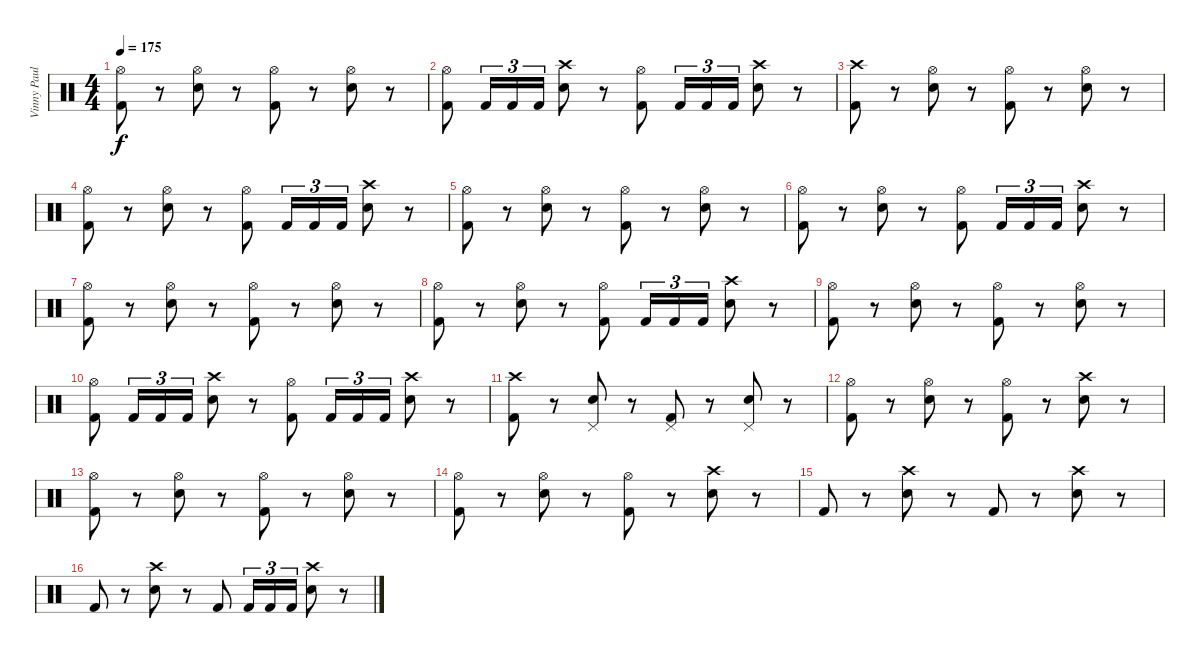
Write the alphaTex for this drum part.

\track ("Vinny Paul" "Vinny Paul") {instrument percussion}
\staff {score}
\articulation defaults
\ts (4 4)
\tempo 175
\clef neutral
\ks c
("Hi-Hat (open)" "Kick (hit) 2").8{dy f} r.8 ("Hi-Hat (open)" "Snare (hit) 2").8 r.8 ("Hi-Hat (open)" "Kick (hit) 2").8 r.8 ("Hi-Hat (open)" "Snare (hit) 2").8 r.8 |
("Hi-Hat (open)" "Kick (hit) 2").8 "Kick (hit) 2".16{tu (3 2)} "Kick (hit) 2".16{tu (3 2)} "Kick (hit) 2".16{tu (3 2)} ("Crash high (hit)" "Snare (hit) 2").8 r.8 ("Hi-Hat (open)" "Kick (hit) 2").8 "Kick (hit) 2".16{tu (3 2)} "Kick (hit) 2".16{tu (3 2)} "Kick (hit) 2".16{tu (3 2)} ("Crash high (hit)" "Snare (hit) 2").8 r.8 |
("Crash high (hit)" "Kick (hit) 2").8 r.8 ("Hi-Hat (open)" "Snare (hit) 2").8 r.8 ("Hi-Hat (open)" "Kick (hit) 2").8 r.8 ("Hi-Hat (open)" "Snare (hit) 2").8 r.8 |
("Hi-Hat (open)" "Kick (hit) 2").8 r.8 ("Hi-Hat (open)" "Snare (hit) 2").8 r.8 ("Hi-Hat (open)" "Kick (hit) 2").8 "Kick (hit) 2".16{tu (3 2)} "Kick (hit) 2".16{tu (3 2)} "Kick (hit) 2".16{tu (3 2)} ("Crash high (hit)" "Snare (hit) 2").8 r.8 |
("Hi-Hat (open)" "Kick (hit) 2").8 r.8 ("Hi-Hat (open)" "Snare (hit) 2").8 r.8 ("Hi-Hat (open)" "Kick (hit) 2").8 r.8 ("Hi-Hat (open)" "Snare (hit) 2").8 r.8 |
("Hi-Hat (open)" "Kick (hit) 2").8 r.8 ("Hi-Hat (open)" "Snare (hit) 2").8 r.8 ("Hi-Hat (open)" "Kick (hit) 2").8 "Kick (hit) 2".16{tu (3 2)} "Kick (hit) 2".16{tu (3 2)} "Kick (hit) 2".16{tu (3 2)} ("Crash high (hit)" "Snare (hit) 2").8 r.8 |
("Hi-Hat (open)" "Kick (hit) 2").8 r.8 ("Hi-Hat (open)" "Snare (hit) 2").8 r.8 ("Hi-Hat (open)" "Kick (hit) 2").8 r.8 ("Hi-Hat (open)" "Snare (hit) 2").8 r.8 |
("Hi-Hat (open)" "Kick (hit) 2").8 r.8 ("Hi-Hat (open)" "Snare (hit) 2").8 r.8 ("Hi-Hat (open)" "Kick (hit) 2").8 "Kick (hit) 2".16{tu (3 2)} "Kick (hit) 2".16{tu (3 2)} "Kick (hit) 2".16{tu (3 2)} ("Crash high (hit)" "Snare (hit) 2").8 r.8 |
("Hi-Hat (open)" "Kick (hit) 2").8 r.8 ("Hi-Hat (open)" "Snare (hit) 2").8 r.8 ("Hi-Hat (open)" "Kick (hit) 2").8 r.8 ("Hi-Hat (open)" "Snare (hit) 2").8 r.8 |
("Hi-Hat (open)" "Kick (hit) 2").8 "Kick (hit) 2".16{tu (3 2)} "Kick (hit) 2".16{tu (3 2)} "Kick (hit) 2".16{tu (3 2)} ("Crash high (hit)" "Snare (hit) 2").8 r.8 ("Hi-Hat (open)" "Kick (hit) 2").8 "Kick (hit) 2".16{tu (3 2)} "Kick (hit) 2".16{tu (3 2)} "Kick (hit) 2".16{tu (3 2)} ("Crash high (hit)" "Snare (hit) 2").8 r.8 |
("Crash high (hit)" "Kick (hit) 2").8 r.8 ("Pedal Hi-Hat (hit)" "Snare (hit) 2").8 r.8 ("Pedal Hi-Hat (hit)" "Kick (hit) 2").8 r.8 ("Pedal Hi-Hat (hit)" "Snare (hit) 2").8 r.8 |
("Hi-Hat (open)" "Kick (hit) 2").8 r.8 ("Hi-Hat (open)" "Snare (hit) 2").8 r.8 ("Hi-Hat (open)" "Kick (hit) 2").8 r.8 ("Crash high (hit)" "Snare (hit) 2").8 r.8 |
("Hi-Hat (open)" "Kick (hit) 2").8 r.8 ("Hi-Hat (open)" "Snare (hit) 2").8 r.8 ("Hi-Hat (open)" "Kick (hit) 2").8 r.8 ("Hi-Hat (open)" "Snare (hit) 2").8 r.8 |
("Hi-Hat (open)" "Kick (hit) 2").8 r.8 ("Hi-Hat (open)" "Snare (hit) 2").8 r.8 ("Hi-Hat (open)" "Kick (hit) 2").8 r.8 ("Crash high (hit)" "Snare (hit) 2").8 r.8 |
"Kick (hit) 2".8 r.8 ("Crash high (hit)" "Snare (hit) 2").8 r.8 "Kick (hit) 2".8 r.8 ("Crash high (hit)" "Snare (hit) 2").8 r.8 |
"Kick (hit) 2".8 r.8 ("Crash high (hit)" "Snare (hit) 2").8 r.8 "Kick (hit) 2".8 "Kick (hit) 2".16{tu (3 2)} "Kick (hit) 2".16{tu (3 2)} "Kick (hit) 2".16{tu (3 2)} ("Crash high (hit)" "Snare (hit) 2").8 r.8
